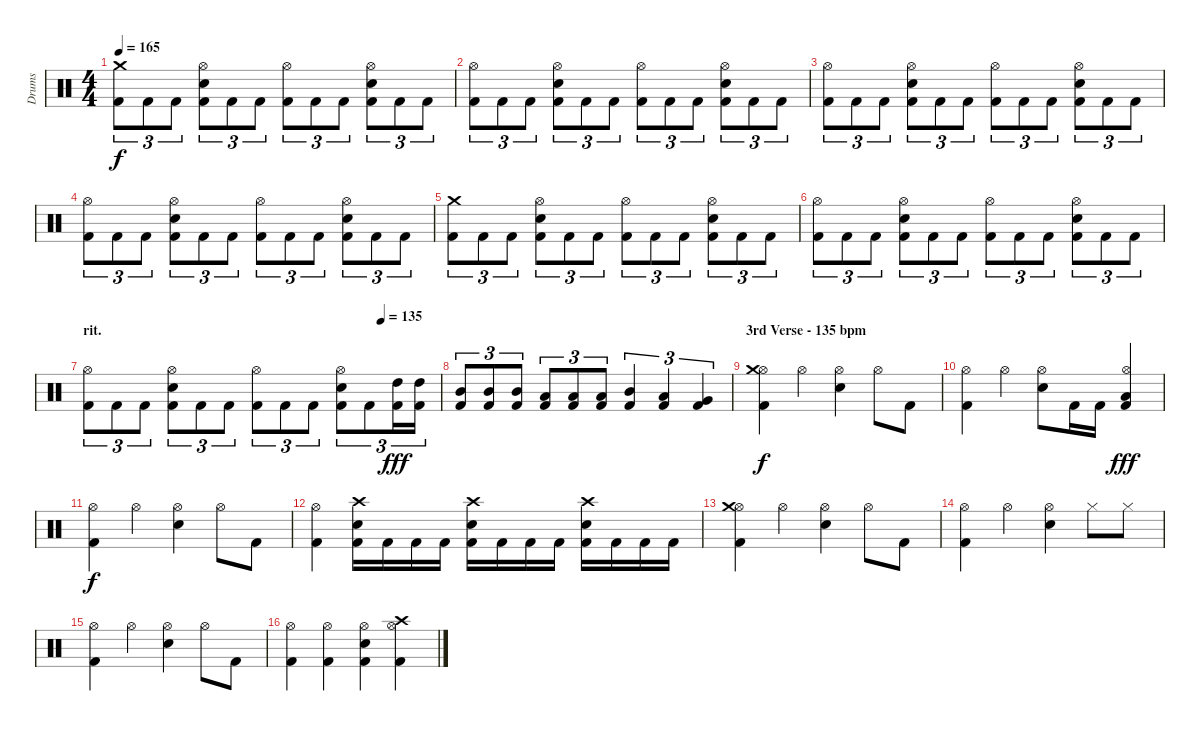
\track ("Drums" "Drums") {instrument percussion}
\staff {score}
\articulation defaults
\ts (4 4)
\tempo 165
\clef neutral
\ks c
("Kick (hit) 2" "Crash medium (hit)").8{tu (3 2) dy f} "Kick (hit) 2".8{tu (3 2)} "Kick (hit) 2".8{tu (3 2)} ("Kick (hit) 2" "Snare (hit) 2" "Hi-Hat (open)").8{tu (3 2)} "Kick (hit) 2".8{tu (3 2)} "Kick (hit) 2".8{tu (3 2)} ("Kick (hit) 2" "Hi-Hat (open)").8{tu (3 2)} "Kick (hit) 2".8{tu (3 2)} "Kick (hit) 2".8{tu (3 2)} ("Kick (hit) 2" "Snare (hit) 2" "Hi-Hat (open)").8{tu (3 2)} "Kick (hit) 2".8{tu (3 2)} "Kick (hit) 2".8{tu (3 2)} |
("Kick (hit) 2" "Hi-Hat (open)").8{tu (3 2)} "Kick (hit) 2".8{tu (3 2)} "Kick (hit) 2".8{tu (3 2)} ("Kick (hit) 2" "Snare (hit) 2" "Hi-Hat (open)").8{tu (3 2)} "Kick (hit) 2".8{tu (3 2)} "Kick (hit) 2".8{tu (3 2)} ("Kick (hit) 2" "Hi-Hat (open)").8{tu (3 2)} "Kick (hit) 2".8{tu (3 2)} "Kick (hit) 2".8{tu (3 2)} ("Kick (hit) 2" "Snare (hit) 2" "Hi-Hat (open)").8{tu (3 2)} "Kick (hit) 2".8{tu (3 2)} "Kick (hit) 2".8{tu (3 2)} |
("Kick (hit) 2" "Hi-Hat (open)").8{tu (3 2)} "Kick (hit) 2".8{tu (3 2)} "Kick (hit) 2".8{tu (3 2)} ("Kick (hit) 2" "Snare (hit) 2" "Hi-Hat (open)").8{tu (3 2)} "Kick (hit) 2".8{tu (3 2)} "Kick (hit) 2".8{tu (3 2)} ("Kick (hit) 2" "Hi-Hat (open)").8{tu (3 2)} "Kick (hit) 2".8{tu (3 2)} "Kick (hit) 2".8{tu (3 2)} ("Kick (hit) 2" "Snare (hit) 2" "Hi-Hat (open)").8{tu (3 2)} "Kick (hit) 2".8{tu (3 2)} "Kick (hit) 2".8{tu (3 2)} |
("Kick (hit) 2" "Hi-Hat (open)").8{tu (3 2)} "Kick (hit) 2".8{tu (3 2)} "Kick (hit) 2".8{tu (3 2)} ("Kick (hit) 2" "Snare (hit) 2" "Hi-Hat (open)").8{tu (3 2)} "Kick (hit) 2".8{tu (3 2)} "Kick (hit) 2".8{tu (3 2)} ("Kick (hit) 2" "Hi-Hat (open)").8{tu (3 2)} "Kick (hit) 2".8{tu (3 2)} "Kick (hit) 2".8{tu (3 2)} ("Kick (hit) 2" "Snare (hit) 2" "Hi-Hat (open)").8{tu (3 2)} "Kick (hit) 2".8{tu (3 2)} "Kick (hit) 2".8{tu (3 2)} |
("Kick (hit) 2" "Crash medium (hit)").8{tu (3 2)} "Kick (hit) 2".8{tu (3 2)} "Kick (hit) 2".8{tu (3 2)} ("Kick (hit) 2" "Snare (hit) 2" "Hi-Hat (open)").8{tu (3 2)} "Kick (hit) 2".8{tu (3 2)} "Kick (hit) 2".8{tu (3 2)} ("Kick (hit) 2" "Hi-Hat (open)").8{tu (3 2)} "Kick (hit) 2".8{tu (3 2)} "Kick (hit) 2".8{tu (3 2)} ("Kick (hit) 2" "Snare (hit) 2" "Hi-Hat (open)").8{tu (3 2)} "Kick (hit) 2".8{tu (3 2)} "Kick (hit) 2".8{tu (3 2)} |
("Kick (hit) 2" "Hi-Hat (open)").8{tu (3 2)} "Kick (hit) 2".8{tu (3 2)} "Kick (hit) 2".8{tu (3 2)} ("Kick (hit) 2" "Snare (hit) 2" "Hi-Hat (open)").8{tu (3 2)} "Kick (hit) 2".8{tu (3 2)} "Kick (hit) 2".8{tu (3 2)} ("Kick (hit) 2" "Hi-Hat (open)").8{tu (3 2)} "Kick (hit) 2".8{tu (3 2)} "Kick (hit) 2".8{tu (3 2)} ("Kick (hit) 2" "Snare (hit) 2" "Hi-Hat (open)").8{tu (3 2)} "Kick (hit) 2".8{tu (3 2)} "Kick (hit) 2".8{tu (3 2)} |
\section ("" "rit.")
\tempo (135 0.8333333333333334)
("Kick (hit) 2" "Hi-Hat (open)").8{tu (3 2)} "Kick (hit) 2".8{tu (3 2)} "Kick (hit) 2".8{tu (3 2)} ("Kick (hit) 2" "Snare (hit) 2" "Hi-Hat (open)").8{tu (3 2)} "Kick (hit) 2".8{tu (3 2)} "Kick (hit) 2".8{tu (3 2)} ("Kick (hit) 2" "Hi-Hat (open)").8{tu (3 2)} "Kick (hit) 2".8{tu (3 2)} "Kick (hit) 2".8{tu (3 2)} ("Kick (hit) 2" "Snare (hit) 2" "Hi-Hat (open)").8{tu (3 2)} "Kick (hit) 2".8{tu (3 2)} ("Kick (hit) 2" "High Tom (hit)").16{tu (3 2) dy fff} ("Kick (hit) 2" "High Tom (hit)").16{tu (3 2)} |
("Kick (hit) 2" "Mid Tom (hit)").8{tu (3 2)} ("Kick (hit) 2" "Mid Tom (hit)").8{tu (3 2)} ("Kick (hit) 2" "Mid Tom (hit)").8{tu (3 2)} ("Kick (hit) 2" "Low Tom (hit)").8{tu (3 2)} ("Kick (hit) 2" "Low Tom (hit)").8{tu (3 2)} ("Kick (hit) 2" "Low Tom (hit)").8{tu (3 2)} ("Kick (hit) 2" "Mid Tom (hit)").4{tu (3 2)} ("Kick (hit) 2" "Low Tom (hit)").4{tu (3 2)} ("Kick (hit) 2" "Very Low Tom (hit)").4{tu (3 2)} |
\section ("" "3rd Verse - 135 bpm")
("Kick (hit) 2" "Hi-Hat (open)" "Crash medium (hit)").4{dy f} "Hi-Hat (open)".4 ("Snare (hit) 2" "Hi-Hat (open)").4 "Hi-Hat (open)".8 "Kick (hit) 2".8 |
("Kick (hit) 2" "Hi-Hat (open)").4 "Hi-Hat (open)".4 ("Snare (hit) 2" "Hi-Hat (open)").8 "Kick (hit) 2".16 "Kick (hit) 2".16 ("Kick (hit) 2" "Low Tom (hit)" "Hi-Hat (open)").4{dy fff} |
("Kick (hit) 2" "Hi-Hat (open)").4{dy f} "Hi-Hat (open)".4 ("Snare (hit) 2" "Hi-Hat (open)").4 "Hi-Hat (open)".8 "Kick (hit) 2".8 |
("Kick (hit) 2" "Hi-Hat (open)").4 ("Kick (hit) 2" "Snare (hit) 2" "Crash high (hit)").16 "Kick (hit) 2".16 "Kick (hit) 2".16 "Kick (hit) 2".16 ("Kick (hit) 2" "Snare (hit) 2" "Crash high (hit)").16 "Kick (hit) 2".16 "Kick (hit) 2".16 "Kick (hit) 2".16 ("Kick (hit) 2" "Snare (hit) 2" "Crash high (hit)").16 "Kick (hit) 2".16 "Kick (hit) 2".16 "Kick (hit) 2".16 |
("Kick (hit) 2" "Hi-Hat (open)" "Crash medium (hit)").4 "Hi-Hat (open)".4 ("Snare (hit) 2" "Hi-Hat (open)").4 "Hi-Hat (open)".8 "Kick (hit) 2".8 |
("Kick (hit) 2" "Hi-Hat (open)").4 "Hi-Hat (open)".4 ("Snare (hit) 2" "Hi-Hat (open)").4 "Hi-Hat (closed)".8 "Hi-Hat (closed)".8 |
("Kick (hit) 2" "Hi-Hat (open)").4 "Hi-Hat (open)".4 ("Snare (hit) 2" "Hi-Hat (open)").4 "Hi-Hat (open)".8 "Kick (hit) 2".8 |
("Kick (hit) 2" "Hi-Hat (open)").4 ("Kick (hit) 2" "Hi-Hat (open)").4 ("Kick (hit) 2" "Snare (hit) 2" "Hi-Hat (open)").4 ("Kick (hit) 2" "Hi-Hat (open)" "Crash high (hit)").4
